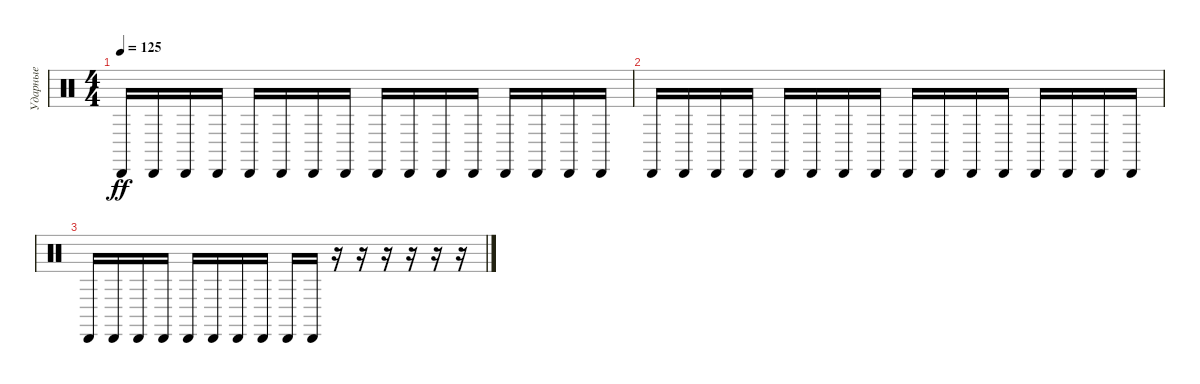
\track ("Ударные" "Ударные") {instrument percussion}
\staff {score}
\articulation defaults
\ts (4 4)
\tempo 125
\clef neutral
\ks c "Cabasa (hit)".16{dy ff} "Cabasa (hit)".16 "Cabasa (hit)".16 "Cabasa (hit)".16 "Cabasa (hit)".16 "Cabasa (hit)".16 "Cabasa (hit)".16 "Cabasa (hit)".16 "Cabasa (hit)".16 "Cabasa (hit)".16 "Cabasa (hit)".16 "Cabasa (hit)".16 "Cabasa (hit)".16 "Cabasa (hit)".16 "Cabasa (hit)".16 "Cabasa (hit)".16
|
"Cabasa (hit)".16 "Cabasa (hit)".16 "Cabasa (hit)".16 "Cabasa (hit)".16 "Cabasa (hit)".16 "Cabasa (hit)".16 "Cabasa (hit)".16 "Cabasa (hit)".16 "Cabasa (hit)".16 "Cabasa (hit)".16 "Cabasa (hit)".16 "Cabasa (hit)".16 "Cabasa (hit)".16 "Cabasa (hit)".16 "Cabasa (hit)".16 "Cabasa (hit)".16 |
"Cabasa (hit)".16 "Cabasa (hit)".16 "Cabasa (hit)".16 "Cabasa (hit)".16 "Cabasa (hit)".16 "Cabasa (hit)".16 "Cabasa (hit)".16 "Cabasa (hit)".16 "Cabasa (hit)".16 "Cabasa (hit)".16 r.16 r.16 r.16 r.16 r.16 r.16
